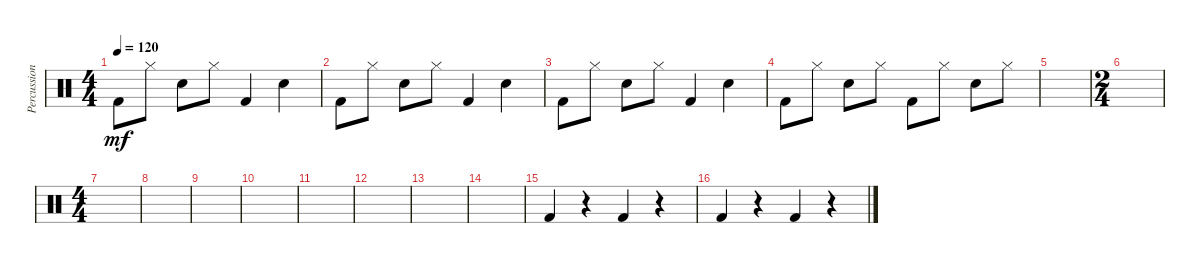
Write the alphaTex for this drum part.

\track ("Percussions 1" "Percussion") {instrument percussion}
\staff {score}
\articulation defaults
\ts (4 4)
\tempo 120
\clef neutral
\ks c "Kick (hit) 2".8{dy mf} "Hi-Hat (closed)".8 "Snare (hit) 2".8 "Hi-Hat (closed)".8 "Kick (hit) 2".4 "Snare (hit) 2".4
|
"Kick (hit) 2".8 "Hi-Hat (closed)".8 "Snare (hit) 2".8 "Hi-Hat (closed)".8 "Kick (hit) 2".4 "Snare (hit) 2".4 |
"Kick (hit) 2".8 "Hi-Hat (closed)".8 "Snare (hit) 2".8 "Hi-Hat (closed)".8 "Kick (hit) 2".4 "Snare (hit) 2".4 |
"Kick (hit) 2".8 "Hi-Hat (closed)".8 "Snare (hit) 2".8 "Hi-Hat (closed)".8 "Kick (hit) 2".8 "Hi-Hat (closed)".8 "Snare (hit) 2".8 "Hi-Hat (closed)".8 |
|
\ts (2 4)
|
\ts (4 4)
|
|
|
|
|
|
|
|
"Kick (hit) 2".4 r.4 "Kick (hit) 2".4 r.4 |
"Kick (hit) 2".4 r.4 "Kick (hit) 2".4 r.4
